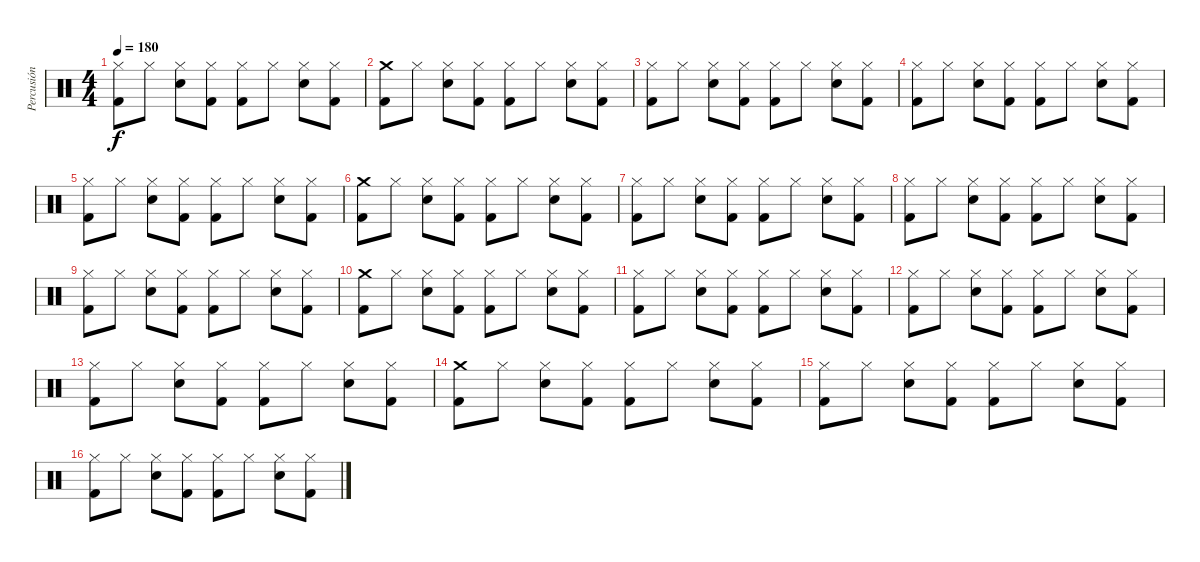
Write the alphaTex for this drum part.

\track ("Percusión" "Percusión") {instrument percussion}
\staff {score}
\articulation defaults
\ts (4 4)
\tempo 180
\clef neutral
\ks c
("Hi-Hat (closed)" "Kick (hit) 2").8{dy f} "Hi-Hat (closed)".8 ("Hi-Hat (closed)" "Electric Snare (hit)").8 ("Hi-Hat (closed)" "Kick (hit) 2").8 ("Hi-Hat (closed)" "Kick (hit) 2").8 "Hi-Hat (closed)".8 ("Hi-Hat (closed)" "Electric Snare (hit)").8 ("Hi-Hat (closed)" "Kick (hit) 2").8 |
("Crash medium (hit)" "Kick (hit) 2").8 "Hi-Hat (closed)".8 ("Hi-Hat (closed)" "Electric Snare (hit)").8 ("Hi-Hat (closed)" "Kick (hit) 2").8 ("Hi-Hat (closed)" "Kick (hit) 2").8 "Hi-Hat (closed)".8 ("Hi-Hat (closed)" "Electric Snare (hit)").8 ("Hi-Hat (closed)" "Kick (hit) 2").8 |
("Hi-Hat (closed)" "Kick (hit) 2").8 "Hi-Hat (closed)".8 ("Hi-Hat (closed)" "Electric Snare (hit)").8 ("Hi-Hat (closed)" "Kick (hit) 2").8 ("Hi-Hat (closed)" "Kick (hit) 2").8 "Hi-Hat (closed)".8 ("Hi-Hat (closed)" "Electric Snare (hit)").8 ("Hi-Hat (closed)" "Kick (hit) 2").8 |
("Hi-Hat (closed)" "Kick (hit) 2").8 "Hi-Hat (closed)".8 ("Hi-Hat (closed)" "Electric Snare (hit)").8 ("Hi-Hat (closed)" "Kick (hit) 2").8 ("Hi-Hat (closed)" "Kick (hit) 2").8 "Hi-Hat (closed)".8 ("Hi-Hat (closed)" "Electric Snare (hit)").8 ("Hi-Hat (closed)" "Kick (hit) 2").8 |
("Hi-Hat (closed)" "Kick (hit) 2").8 "Hi-Hat (closed)".8 ("Hi-Hat (closed)" "Electric Snare (hit)").8 ("Hi-Hat (closed)" "Kick (hit) 2").8 ("Hi-Hat (closed)" "Kick (hit) 2").8 "Hi-Hat (closed)".8 ("Hi-Hat (closed)" "Electric Snare (hit)").8 ("Hi-Hat (closed)" "Kick (hit) 2").8 |
("Crash medium (hit)" "Kick (hit) 2").8 "Hi-Hat (closed)".8 ("Hi-Hat (closed)" "Electric Snare (hit)").8 ("Hi-Hat (closed)" "Kick (hit) 2").8 ("Hi-Hat (closed)" "Kick (hit) 2").8 "Hi-Hat (closed)".8 ("Hi-Hat (closed)" "Electric Snare (hit)").8 ("Hi-Hat (closed)" "Kick (hit) 2").8 |
("Hi-Hat (closed)" "Kick (hit) 2").8 "Hi-Hat (closed)".8 ("Hi-Hat (closed)" "Electric Snare (hit)").8 ("Hi-Hat (closed)" "Kick (hit) 2").8 ("Hi-Hat (closed)" "Kick (hit) 2").8 "Hi-Hat (closed)".8 ("Hi-Hat (closed)" "Electric Snare (hit)").8 ("Hi-Hat (closed)" "Kick (hit) 2").8 |
("Hi-Hat (closed)" "Kick (hit) 2").8 "Hi-Hat (closed)".8 ("Hi-Hat (closed)" "Electric Snare (hit)").8 ("Hi-Hat (closed)" "Kick (hit) 2").8 ("Hi-Hat (closed)" "Kick (hit) 2").8 "Hi-Hat (closed)".8 ("Hi-Hat (closed)" "Electric Snare (hit)").8 ("Hi-Hat (closed)" "Kick (hit) 2").8 |
("Hi-Hat (closed)" "Kick (hit) 2").8 "Hi-Hat (closed)".8 ("Hi-Hat (closed)" "Electric Snare (hit)").8 ("Hi-Hat (closed)" "Kick (hit) 2").8 ("Hi-Hat (closed)" "Kick (hit) 2").8 "Hi-Hat (closed)".8 ("Hi-Hat (closed)" "Electric Snare (hit)").8 ("Hi-Hat (closed)" "Kick (hit) 2").8 |
("Crash medium (hit)" "Kick (hit) 2").8 "Hi-Hat (closed)".8 ("Hi-Hat (closed)" "Electric Snare (hit)").8 ("Hi-Hat (closed)" "Kick (hit) 2").8 ("Hi-Hat (closed)" "Kick (hit) 2").8 "Hi-Hat (closed)".8 ("Hi-Hat (closed)" "Electric Snare (hit)").8 ("Hi-Hat (closed)" "Kick (hit) 2").8 |
("Hi-Hat (closed)" "Kick (hit) 2").8 "Hi-Hat (closed)".8 ("Hi-Hat (closed)" "Electric Snare (hit)").8 ("Hi-Hat (closed)" "Kick (hit) 2").8 ("Hi-Hat (closed)" "Kick (hit) 2").8 "Hi-Hat (closed)".8 ("Hi-Hat (closed)" "Electric Snare (hit)").8 ("Hi-Hat (closed)" "Kick (hit) 2").8 |
("Hi-Hat (closed)" "Kick (hit) 2").8 "Hi-Hat (closed)".8 ("Hi-Hat (closed)" "Electric Snare (hit)").8 ("Hi-Hat (closed)" "Kick (hit) 2").8 ("Hi-Hat (closed)" "Kick (hit) 2").8 "Hi-Hat (closed)".8 ("Hi-Hat (closed)" "Electric Snare (hit)").8 ("Hi-Hat (closed)" "Kick (hit) 2").8 |
("Hi-Hat (closed)" "Kick (hit) 2").8 "Hi-Hat (closed)".8 ("Hi-Hat (closed)" "Electric Snare (hit)").8 ("Hi-Hat (closed)" "Kick (hit) 2").8 ("Hi-Hat (closed)" "Kick (hit) 2").8 "Hi-Hat (closed)".8 ("Hi-Hat (closed)" "Electric Snare (hit)").8 ("Hi-Hat (closed)" "Kick (hit) 2").8 |
("Crash medium (hit)" "Kick (hit) 2").8 "Hi-Hat (closed)".8 ("Hi-Hat (closed)" "Electric Snare (hit)").8 ("Hi-Hat (closed)" "Kick (hit) 2").8 ("Hi-Hat (closed)" "Kick (hit) 2").8 "Hi-Hat (closed)".8 ("Hi-Hat (closed)" "Electric Snare (hit)").8 ("Hi-Hat (closed)" "Kick (hit) 2").8 |
("Hi-Hat (closed)" "Kick (hit) 2").8 "Hi-Hat (closed)".8 ("Hi-Hat (closed)" "Electric Snare (hit)").8 ("Hi-Hat (closed)" "Kick (hit) 2").8 ("Hi-Hat (closed)" "Kick (hit) 2").8 "Hi-Hat (closed)".8 ("Hi-Hat (closed)" "Electric Snare (hit)").8 ("Hi-Hat (closed)" "Kick (hit) 2").8 |
("Hi-Hat (closed)" "Kick (hit) 2").8 "Hi-Hat (closed)".8 ("Hi-Hat (closed)" "Electric Snare (hit)").8 ("Hi-Hat (closed)" "Kick (hit) 2").8 ("Hi-Hat (closed)" "Kick (hit) 2").8 "Hi-Hat (closed)".8 ("Hi-Hat (closed)" "Electric Snare (hit)").8 ("Hi-Hat (closed)" "Kick (hit) 2").8
